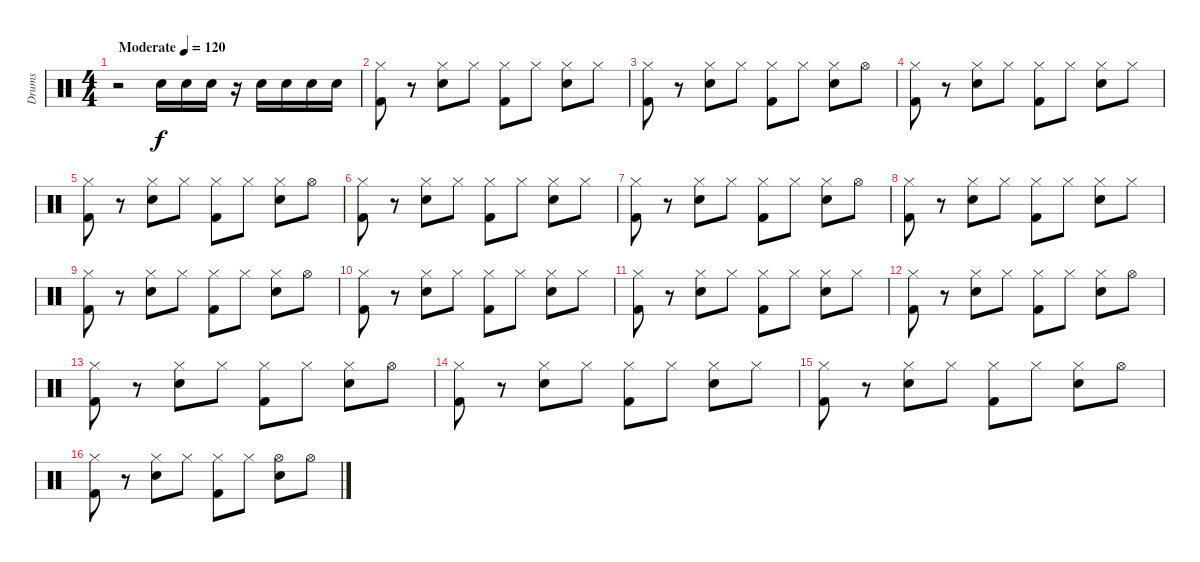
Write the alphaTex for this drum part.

\track ("Drums" "Drums") {instrument percussion}
\staff
\articulation defaults
\ts (4 4)
\tempo (120 "Moderate")
\clef neutral
\ks c
r.2{dy f} "Snare (hit) 2".16 "Snare (hit) 2".16 "Snare (hit) 2".16 r.16 "Snare (hit) 2".16 "Snare (hit) 2".16 "Snare (hit) 2".16 "Snare (hit) 2".16 |
("Hi-Hat (closed)" "Kick (hit) 2").8 r.8 ("Hi-Hat (closed)" "Snare (hit) 2").8 "Hi-Hat (closed)".8 ("Hi-Hat (closed)" "Kick (hit) 2").8 "Hi-Hat (closed)".8 ("Hi-Hat (closed)" "Snare (hit) 2").8 "Hi-Hat (closed)".8 |
("Hi-Hat (closed)" "Kick (hit) 2").8 r.8 ("Hi-Hat (closed)" "Snare (hit) 2").8 "Hi-Hat (closed)".8 ("Hi-Hat (closed)" "Kick (hit) 2").8 "Hi-Hat (closed)".8 ("Hi-Hat (closed)" "Snare (hit) 2").8 "Hi-Hat (open)".8 |
("Hi-Hat (closed)" "Kick (hit) 2").8 r.8 ("Hi-Hat (closed)" "Snare (hit) 2").8 "Hi-Hat (closed)".8 ("Hi-Hat (closed)" "Kick (hit) 2").8 "Hi-Hat (closed)".8 ("Hi-Hat (closed)" "Snare (hit) 2").8 "Hi-Hat (closed)".8 |
("Hi-Hat (closed)" "Kick (hit) 2").8 r.8 ("Hi-Hat (closed)" "Snare (hit) 2").8 "Hi-Hat (closed)".8 ("Hi-Hat (closed)" "Kick (hit) 2").8 "Hi-Hat (closed)".8 ("Hi-Hat (closed)" "Snare (hit) 2").8 "Hi-Hat (open)".8 |
("Hi-Hat (closed)" "Kick (hit) 2").8 r.8 ("Hi-Hat (closed)" "Snare (hit) 2").8 "Hi-Hat (closed)".8 ("Hi-Hat (closed)" "Kick (hit) 2").8 "Hi-Hat (closed)".8 ("Hi-Hat (closed)" "Snare (hit) 2").8 "Hi-Hat (closed)".8 |
("Hi-Hat (closed)" "Kick (hit) 2").8 r.8 ("Hi-Hat (closed)" "Snare (hit) 2").8 "Hi-Hat (closed)".8 ("Hi-Hat (closed)" "Kick (hit) 2").8 "Hi-Hat (closed)".8 ("Hi-Hat (closed)" "Snare (hit) 2").8 "Hi-Hat (open)".8 |
("Hi-Hat (closed)" "Kick (hit) 2").8 r.8 ("Hi-Hat (closed)" "Snare (hit) 2").8 "Hi-Hat (closed)".8 ("Hi-Hat (closed)" "Kick (hit) 2").8 "Hi-Hat (closed)".8 ("Hi-Hat (closed)" "Snare (hit) 2").8 "Hi-Hat (closed)".8 |
("Hi-Hat (closed)" "Kick (hit) 2").8 r.8 ("Hi-Hat (closed)" "Snare (hit) 2").8 "Hi-Hat (closed)".8 ("Hi-Hat (closed)" "Kick (hit) 2").8 "Hi-Hat (closed)".8 ("Hi-Hat (closed)" "Snare (hit) 2").8 "Hi-Hat (open)".8 |
("Hi-Hat (closed)" "Kick (hit) 2").8 r.8 ("Hi-Hat (closed)" "Snare (hit) 2").8 "Hi-Hat (closed)".8 ("Hi-Hat (closed)" "Kick (hit) 2").8 "Hi-Hat (closed)".8 ("Hi-Hat (closed)" "Snare (hit) 2").8 "Hi-Hat (closed)".8 |
("Hi-Hat (closed)" "Kick (hit) 2").8 r.8 ("Hi-Hat (closed)" "Snare (hit) 2").8 "Hi-Hat (closed)".8 ("Hi-Hat (closed)" "Kick (hit) 2").8 "Hi-Hat (closed)".8 ("Hi-Hat (closed)" "Snare (hit) 2").8 "Hi-Hat (closed)".8 |
("Hi-Hat (closed)" "Kick (hit) 2").8 r.8 ("Hi-Hat (closed)" "Snare (hit) 2").8 "Hi-Hat (closed)".8 ("Hi-Hat (closed)" "Kick (hit) 2").8 "Hi-Hat (closed)".8 ("Hi-Hat (closed)" "Snare (hit) 2").8 "Hi-Hat (open)".8 |
("Hi-Hat (closed)" "Kick (hit) 2").8 r.8 ("Hi-Hat (closed)" "Snare (hit) 2").8 "Hi-Hat (closed)".8 ("Hi-Hat (closed)" "Kick (hit) 2").8 "Hi-Hat (closed)".8 ("Hi-Hat (closed)" "Snare (hit) 2").8 "Hi-Hat (open)".8 |
("Hi-Hat (closed)" "Kick (hit) 2").8 r.8 ("Hi-Hat (closed)" "Snare (hit) 2").8 "Hi-Hat (closed)".8 ("Hi-Hat (closed)" "Kick (hit) 2").8 "Hi-Hat (closed)".8 ("Hi-Hat (closed)" "Snare (hit) 2").8 "Hi-Hat (closed)".8 |
("Hi-Hat (closed)" "Kick (hit) 2").8 r.8 ("Hi-Hat (closed)" "Snare (hit) 2").8 "Hi-Hat (closed)".8 ("Hi-Hat (closed)" "Kick (hit) 2").8 "Hi-Hat (closed)".8 ("Hi-Hat (closed)" "Snare (hit) 2").8 "Hi-Hat (open)".8 |
("Hi-Hat (closed)" "Kick (hit) 2").8 r.8 ("Hi-Hat (closed)" "Snare (hit) 2").8 "Hi-Hat (closed)".8 ("Hi-Hat (closed)" "Kick (hit) 2").8 "Hi-Hat (closed)".8 ("Hi-Hat (open)" "Snare (hit) 2").8 "Hi-Hat (open)".8
